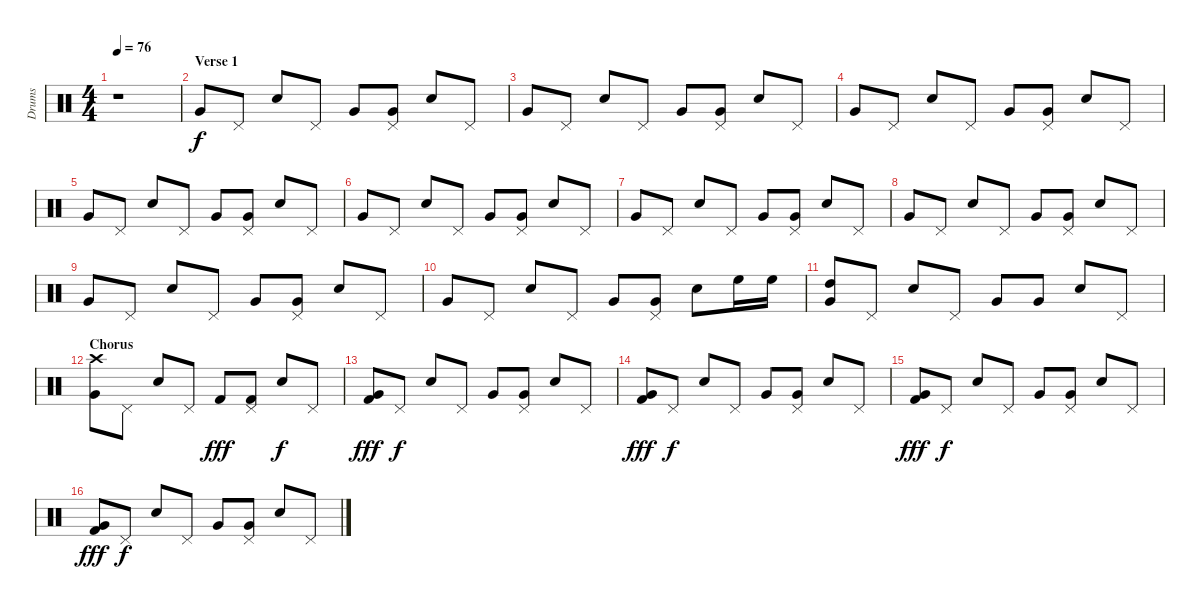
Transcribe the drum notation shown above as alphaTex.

\track ("Drums" "Drums") {instrument percussion}
\staff {score}
\articulation defaults
\ts (4 4)
\tempo 76
\clef neutral
\ks c
r.1{dy f} |
\section ("" "Verse 1")
"Very Low Tom (hit)".8 "Pedal Hi-Hat (hit)".8 "Electric Snare (hit)".8 "Pedal Hi-Hat (hit)".8 "Very Low Tom (hit)".8 ("Very Low Tom (hit)" "Pedal Hi-Hat (hit)").8 "Electric Snare (hit)".8 "Pedal Hi-Hat (hit)".8 |
"Very Low Tom (hit)".8 "Pedal Hi-Hat (hit)".8 "Electric Snare (hit)".8 "Pedal Hi-Hat (hit)".8 "Very Low Tom (hit)".8 ("Very Low Tom (hit)" "Pedal Hi-Hat (hit)").8 "Electric Snare (hit)".8 "Pedal Hi-Hat (hit)".8 |
"Very Low Tom (hit)".8 "Pedal Hi-Hat (hit)".8 "Electric Snare (hit)".8 "Pedal Hi-Hat (hit)".8 "Very Low Tom (hit)".8 ("Very Low Tom (hit)" "Pedal Hi-Hat (hit)").8 "Electric Snare (hit)".8 "Pedal Hi-Hat (hit)".8 |
"Very Low Tom (hit)".8 "Pedal Hi-Hat (hit)".8 "Electric Snare (hit)".8 "Pedal Hi-Hat (hit)".8 "Very Low Tom (hit)".8 ("Very Low Tom (hit)" "Pedal Hi-Hat (hit)").8 "Electric Snare (hit)".8 "Pedal Hi-Hat (hit)".8 |
"Very Low Tom (hit)".8 "Pedal Hi-Hat (hit)".8 "Electric Snare (hit)".8 "Pedal Hi-Hat (hit)".8 "Very Low Tom (hit)".8 ("Very Low Tom (hit)" "Pedal Hi-Hat (hit)").8 "Electric Snare (hit)".8 "Pedal Hi-Hat (hit)".8 |
"Very Low Tom (hit)".8 "Pedal Hi-Hat (hit)".8 "Electric Snare (hit)".8 "Pedal Hi-Hat (hit)".8 "Very Low Tom (hit)".8 ("Very Low Tom (hit)" "Pedal Hi-Hat (hit)").8 "Electric Snare (hit)".8 "Pedal Hi-Hat (hit)".8 |
"Very Low Tom (hit)".8 "Pedal Hi-Hat (hit)".8 "Electric Snare (hit)".8 "Pedal Hi-Hat (hit)".8 "Very Low Tom (hit)".8 ("Very Low Tom (hit)" "Pedal Hi-Hat (hit)").8 "Electric Snare (hit)".8 "Pedal Hi-Hat (hit)".8 |
"Very Low Tom (hit)".8 "Pedal Hi-Hat (hit)".8 "Electric Snare (hit)".8 "Pedal Hi-Hat (hit)".8 "Very Low Tom (hit)".8 ("Very Low Tom (hit)" "Pedal Hi-Hat (hit)").8 "Electric Snare (hit)".8 "Pedal Hi-Hat (hit)".8 |
"Very Low Tom (hit)".8 "Pedal Hi-Hat (hit)".8 "Electric Snare (hit)".8 "Pedal Hi-Hat (hit)".8 "Very Low Tom (hit)".8 ("Very Low Tom (hit)" "Pedal Hi-Hat (hit)").8 "Electric Snare (hit)".8 "High Floor Tom (hit)".16 "High Floor Tom (hit)".16 |
("High Tom (hit)" "Very Low Tom (hit)").8 "Pedal Hi-Hat (hit)".8 "Electric Snare (hit)".8 "Pedal Hi-Hat (hit)".8 "Very Low Tom (hit)".8 "Very Low Tom (hit)".8 "Electric Snare (hit)".8 "Pedal Hi-Hat (hit)".8 |
\section ("" "Chorus")
("Crash high (hit)" "Very Low Tom (hit)").8 "Pedal Hi-Hat (hit)".8 "Electric Snare (hit)".8 "Pedal Hi-Hat (hit)".8 "Kick (hit) 2".8{dy fff} ("Kick (hit) 2" "Pedal Hi-Hat (hit)").8 "Electric Snare (hit)".8{dy f} "Pedal Hi-Hat (hit)".8 |
("Kick (hit) 2" "Very Low Tom (hit)").8{dy fff} "Pedal Hi-Hat (hit)".8{dy f} "Electric Snare (hit)".8 "Pedal Hi-Hat (hit)".8 "Very Low Tom (hit)".8 ("Very Low Tom (hit)" "Pedal Hi-Hat (hit)").8 "Electric Snare (hit)".8 "Pedal Hi-Hat (hit)".8 |
("Kick (hit) 2" "Very Low Tom (hit)").8{dy fff} "Pedal Hi-Hat (hit)".8{dy f} "Electric Snare (hit)".8 "Pedal Hi-Hat (hit)".8 "Very Low Tom (hit)".8 ("Very Low Tom (hit)" "Pedal Hi-Hat (hit)").8 "Electric Snare (hit)".8 "Pedal Hi-Hat (hit)".8 |
("Kick (hit) 2" "Very Low Tom (hit)").8{dy fff} "Pedal Hi-Hat (hit)".8{dy f} "Electric Snare (hit)".8 "Pedal Hi-Hat (hit)".8 "Very Low Tom (hit)".8 ("Very Low Tom (hit)" "Pedal Hi-Hat (hit)").8 "Electric Snare (hit)".8 "Pedal Hi-Hat (hit)".8 |
("Kick (hit) 2" "Very Low Tom (hit)").8{dy fff} "Pedal Hi-Hat (hit)".8{dy f} "Electric Snare (hit)".8 "Pedal Hi-Hat (hit)".8 "Very Low Tom (hit)".8 ("Very Low Tom (hit)" "Pedal Hi-Hat (hit)").8 "Electric Snare (hit)".8 "Pedal Hi-Hat (hit)".8
